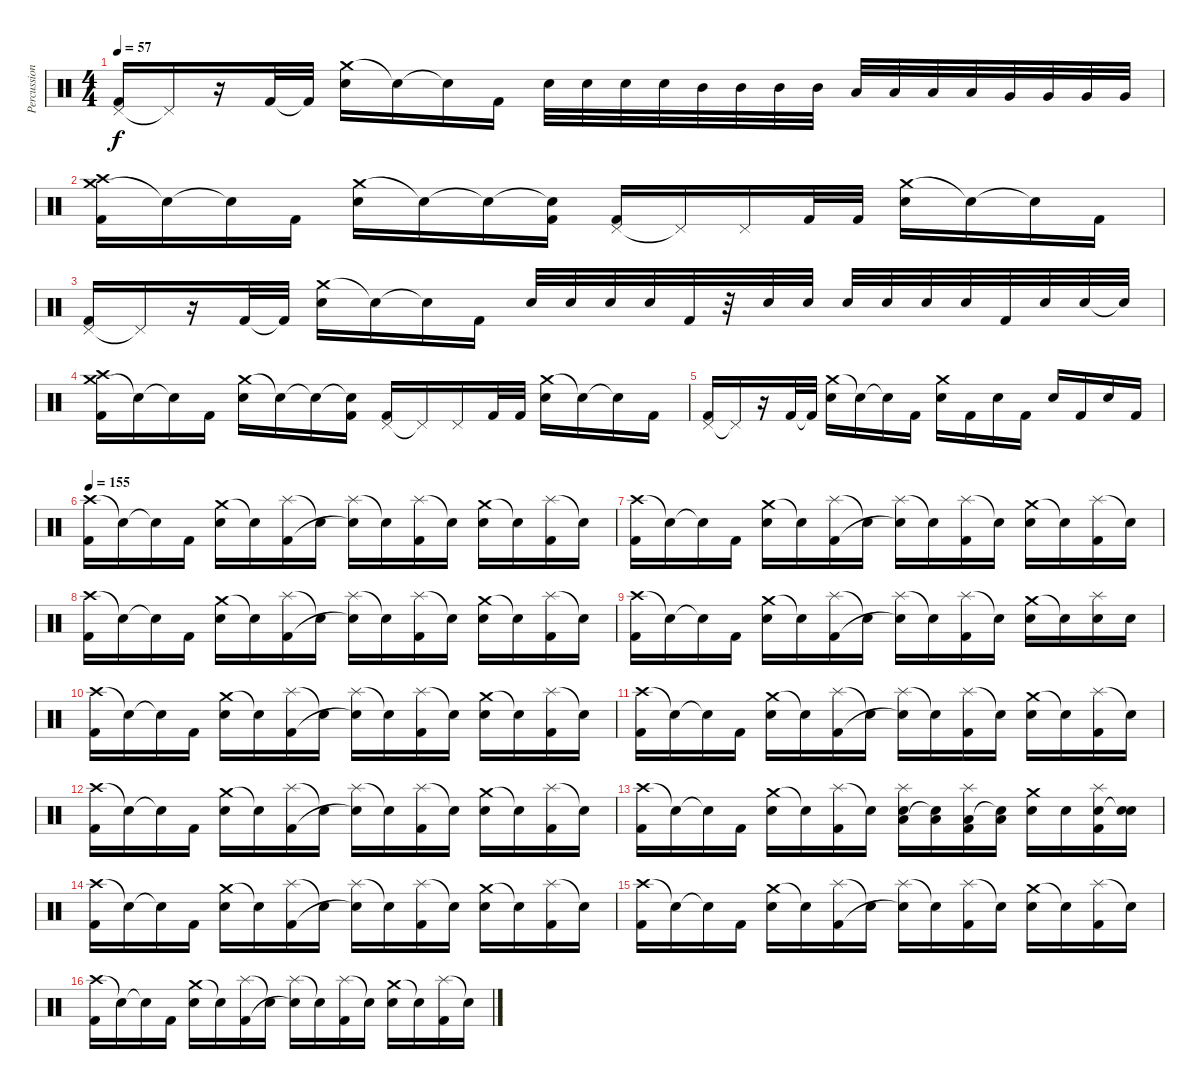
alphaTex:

\track ("Percussion" "Percussion") {instrument percussion}
\staff {score}
\articulation defaults
\ts (4 4)
\tempo 57
\clef neutral
\ks c
("Pedal Hi-Hat (hit)" "Kick (hit) 2").16{dy f} "Pedal Hi-Hat (hit)"{t}.16 r.16 "Kick (hit) 2".32 "Kick (hit) 2"{t}.32 ("Crash medium (hit)" "Snare (hit) 2").16 "Snare (hit)"{t}.16 "Snare (hit)"{t}.16 "Kick (hit) 2".16 "Snare (hit) 2".32 "Snare (hit) 2".32 "Snare (hit) 2".32 "Snare (hit) 2".32 "Mid Tom (hit)".32 "Mid Tom (hit)".32 "Mid Tom (hit)".32 "Mid Tom (hit)".32 "Low Tom (hit)".32 "Low Tom (hit)".32 "Low Tom (hit)".32 "Low Tom (hit)".32 "Very Low Tom (hit)".32 "Very Low Tom (hit)".32 "Very Low Tom (hit)".32 "Very Low Tom (hit)".32 |
("Crash medium (hit)" "Crash high (hit)" "Kick (hit) 2").16 "Snare (hit)"{t}.16 "Snare (hit)"{t}.16 "Kick (hit) 2".16 ("Crash medium (hit)" "Snare (hit) 2").16 "Snare (hit)"{t}.16 "Snare (hit)"{t}.16 ("Snare (hit)"{t} "Kick (hit) 2").16 ("Pedal Hi-Hat (hit)" "Kick (hit) 2").16 "Pedal Hi-Hat (hit)"{t}.16 "Pedal Hi-Hat (hit)".16 "Kick (hit) 2".32 "Kick (hit) 2".32 ("Crash medium (hit)" "Snare (hit) 2").16 "Snare (hit)"{t}.16 "Snare (hit)"{t}.16 "Kick (hit) 2".16 |
("Pedal Hi-Hat (hit)" "Kick (hit) 2").16 "Pedal Hi-Hat (hit)"{t}.16 r.16 "Kick (hit) 2".32 "Kick (hit) 2"{t}.32 ("Crash medium (hit)" "Snare (hit) 2").16 "Snare (hit)"{t}.16 "Snare (hit)"{t}.16 "Kick (hit) 2".16 "Snare (hit) 2".32 "Snare (hit) 2".32 "Snare (hit) 2".32 "Snare (hit) 2".32 "Kick (hit) 2".32 r.32 "Snare (hit) 2".32 "Snare (hit) 2".32 "Snare (hit) 2".32 "Snare (hit) 2".32 "Snare (hit) 2".32 "Snare (hit) 2".32 "Kick (hit) 2".32 "Snare (hit) 2".32 "Snare (hit) 2".32 "Snare (hit) 2"{t}.32 |
("Crash medium (hit)" "Crash high (hit)" "Kick (hit) 2").16 "Snare (hit)"{t}.16 "Snare (hit)"{t}.16 "Kick (hit) 2".16 ("Crash medium (hit)" "Snare (hit) 2").16 "Snare (hit)"{t}.16 "Snare (hit)"{t}.16 ("Snare (hit)"{t} "Kick (hit) 2").16 ("Pedal Hi-Hat (hit)" "Kick (hit) 2").16 "Pedal Hi-Hat (hit)"{t}.16 "Pedal Hi-Hat (hit)".16 "Kick (hit) 2".32 "Kick (hit) 2".32 ("Crash medium (hit)" "Snare (hit) 2").16 "Snare (hit)"{t}.16 "Snare (hit)"{t}.16 "Kick (hit) 2".16 |
("Pedal Hi-Hat (hit)" "Kick (hit) 2").16 "Pedal Hi-Hat (hit)"{t}.16 r.16 "Kick (hit) 2".32 "Kick (hit) 2"{t}.32 ("Crash medium (hit)" "Snare (hit) 2").16 "Snare (hit)"{t}.16 "Snare (hit)"{t}.16 "Kick (hit) 2".16 ("Crash medium (hit)" "Snare (hit) 2").16 "Kick (hit) 2".16 "Snare (hit) 2".16 "Kick (hit) 2".16 "Snare (hit) 2".16 "Kick (hit) 2".16 "Snare (hit) 2".16 "Kick (hit) 2".16 |
\tempo 155
("Crash high (hit)" "Kick (hit) 2").16 "Snare (hit)"{t}.16 "Snare (hit)"{t}.16 "Kick (hit) 2".16 ("Crash medium (hit)" "Snare (hit) 2").16 "Snare (hit)"{t}.16 ("Splash (hit)" "Kick (hit) 2").16 "Snare (hit)"{t}.16 ("Splash (hit)" "Snare (hit)"{t}).16 "Snare (hit)"{t}.16 ("Splash (hit)" "Kick (hit) 2").16 "Snare (hit)"{t}.16 ("Crash medium (hit)" "Snare (hit) 2").16 "Snare (hit)"{t}.16 ("Splash (hit)" "Kick (hit) 2").16 "Snare (hit)"{t}.16 |
("Crash high (hit)" "Kick (hit) 2").16 "Snare (hit)"{t}.16 "Snare (hit)"{t}.16 "Kick (hit) 2".16 ("Crash medium (hit)" "Snare (hit) 2").16 "Snare (hit)"{t}.16 ("Splash (hit)" "Kick (hit) 2").16 "Snare (hit)"{t}.16 ("Splash (hit)" "Snare (hit)"{t}).16 "Snare (hit)"{t}.16 ("Splash (hit)" "Kick (hit) 2").16 "Snare (hit)"{t}.16 ("Crash medium (hit)" "Snare (hit) 2").16 "Snare (hit)"{t}.16 ("Splash (hit)" "Kick (hit) 2").16 "Snare (hit)"{t}.16 |
("Crash high (hit)" "Kick (hit) 2").16 "Snare (hit)"{t}.16 "Snare (hit)"{t}.16 "Kick (hit) 2".16 ("Crash medium (hit)" "Snare (hit) 2").16 "Snare (hit)"{t}.16 ("Splash (hit)" "Kick (hit) 2").16 "Snare (hit)"{t}.16 ("Splash (hit)" "Snare (hit)"{t}).16 "Snare (hit)"{t}.16 ("Splash (hit)" "Kick (hit) 2").16 "Snare (hit)"{t}.16 ("Crash medium (hit)" "Snare (hit) 2").16 "Snare (hit)"{t}.16 ("Splash (hit)" "Kick (hit) 2").16 "Snare (hit)"{t}.16 |
("Crash high (hit)" "Kick (hit) 2").16 "Snare (hit)"{t}.16 "Snare (hit)"{t}.16 "Kick (hit) 2".16 ("Crash medium (hit)" "Snare (hit) 2").16 "Snare (hit)"{t}.16 ("Splash (hit)" "Kick (hit) 2").16 "Snare (hit)"{t}.16 ("Splash (hit)" "Snare (hit)"{t}).16 "Snare (hit)"{t}.16 ("Splash (hit)" "Kick (hit) 2").16 "Snare (hit)"{t}.16 ("Crash medium (hit)" "Snare (hit) 2").16 "Snare (hit)"{t}.16 ("Splash (hit)" "Snare (hit) 2").16 "Snare (hit) 2".16 |
("Crash high (hit)" "Kick (hit) 2").16 "Snare (hit)"{t}.16 "Snare (hit)"{t}.16 "Kick (hit) 2".16 ("Crash medium (hit)" "Snare (hit) 2").16 "Snare (hit)"{t}.16 ("Splash (hit)" "Kick (hit) 2").16 "Snare (hit)"{t}.16 ("Splash (hit)" "Snare (hit)"{t}).16 "Snare (hit)"{t}.16 ("Splash (hit)" "Kick (hit) 2").16 "Snare (hit)"{t}.16 ("Crash medium (hit)" "Snare (hit) 2").16 "Snare (hit)"{t}.16 ("Splash (hit)" "Kick (hit) 2").16 "Snare (hit)"{t}.16 |
("Crash high (hit)" "Kick (hit) 2").16 "Snare (hit)"{t}.16 "Snare (hit)"{t}.16 "Kick (hit) 2".16 ("Crash medium (hit)" "Snare (hit) 2").16 "Snare (hit)"{t}.16 ("Splash (hit)" "Kick (hit) 2").16 "Snare (hit)"{t}.16 ("Splash (hit)" "Snare (hit)"{t}).16 "Snare (hit)"{t}.16 ("Splash (hit)" "Kick (hit) 2").16 "Snare (hit)"{t}.16 ("Crash medium (hit)" "Snare (hit) 2").16 "Snare (hit)"{t}.16 ("Splash (hit)" "Kick (hit) 2").16 "Snare (hit)"{t}.16 |
("Crash high (hit)" "Kick (hit) 2").16 "Snare (hit)"{t}.16 "Snare (hit)"{t}.16 "Kick (hit) 2".16 ("Crash medium (hit)" "Snare (hit) 2").16 "Snare (hit)"{t}.16 ("Splash (hit)" "Kick (hit) 2").16 "Snare (hit)"{t}.16 ("Splash (hit)" "Snare (hit)"{t}).16 "Snare (hit)"{t}.16 ("Splash (hit)" "Kick (hit) 2").16 "Snare (hit)"{t}.16 ("Crash medium (hit)" "Snare (hit) 2").16 "Snare (hit)"{t}.16 ("Splash (hit)" "Kick (hit) 2").16 "Snare (hit)"{t}.16 |
("Crash high (hit)" "Kick (hit) 2").16 "Snare (hit)"{t}.16 "Snare (hit)"{t}.16 "Kick (hit) 2".16 ("Crash medium (hit)" "Snare (hit) 2").16 "Snare (hit)"{t}.16 ("Splash (hit)" "Kick (hit) 2").16 "Snare (hit)"{t}.16 ("Splash (hit)" "Low Tom (hit)" "Snare (hit)").16 ("Low Tom (hit)" "Snare (hit)"{t}).16 ("Splash (hit)" "Low Tom (hit)" "Kick (hit) 2").16 ("Low Tom (hit)" "Snare (hit)"{t}).16 ("Crash medium (hit)" "Snare (hit) 2").16 "Snare (hit) 2".16 ("Splash (hit)" "Snare (hit) 2" "Kick (hit) 2").16 ("Snare (hit) 2" "Snare (hit)"{t}).16 |
("Crash high (hit)" "Kick (hit) 2").16 "Snare (hit)"{t}.16 "Snare (hit)"{t}.16 "Kick (hit) 2".16 ("Crash medium (hit)" "Snare (hit) 2").16 "Snare (hit)"{t}.16 ("Splash (hit)" "Kick (hit) 2").16 "Snare (hit)"{t}.16 ("Splash (hit)" "Snare (hit)"{t}).16 "Snare (hit)"{t}.16 ("Splash (hit)" "Kick (hit) 2").16 "Snare (hit)"{t}.16 ("Crash medium (hit)" "Snare (hit) 2").16 "Snare (hit)"{t}.16 ("Splash (hit)" "Kick (hit) 2").16 "Snare (hit)"{t}.16 |
("Crash high (hit)" "Kick (hit) 2").16 "Snare (hit)"{t}.16 "Snare (hit)"{t}.16 "Kick (hit) 2".16 ("Crash medium (hit)" "Snare (hit) 2").16 "Snare (hit)"{t}.16 ("Splash (hit)" "Kick (hit) 2").16 "Snare (hit)"{t}.16 ("Splash (hit)" "Snare (hit)"{t}).16 "Snare (hit)"{t}.16 ("Splash (hit)" "Kick (hit) 2").16 "Snare (hit)"{t}.16 ("Crash medium (hit)" "Snare (hit) 2").16 "Snare (hit)"{t}.16 ("Splash (hit)" "Kick (hit) 2").16 "Snare (hit)"{t}.16 |
("Crash high (hit)" "Kick (hit) 2").16 "Snare (hit)"{t}.16 "Snare (hit)"{t}.16 "Kick (hit) 2".16 ("Crash medium (hit)" "Snare (hit) 2").16 "Snare (hit)"{t}.16 ("Splash (hit)" "Kick (hit) 2").16 "Snare (hit)"{t}.16 ("Splash (hit)" "Snare (hit)"{t}).16 "Snare (hit)"{t}.16 ("Splash (hit)" "Kick (hit) 2").16 "Snare (hit)"{t}.16 ("Crash medium (hit)" "Snare (hit) 2").16 "Snare (hit)"{t}.16 ("Splash (hit)" "Kick (hit) 2").16 "Snare (hit)"{t}.16
